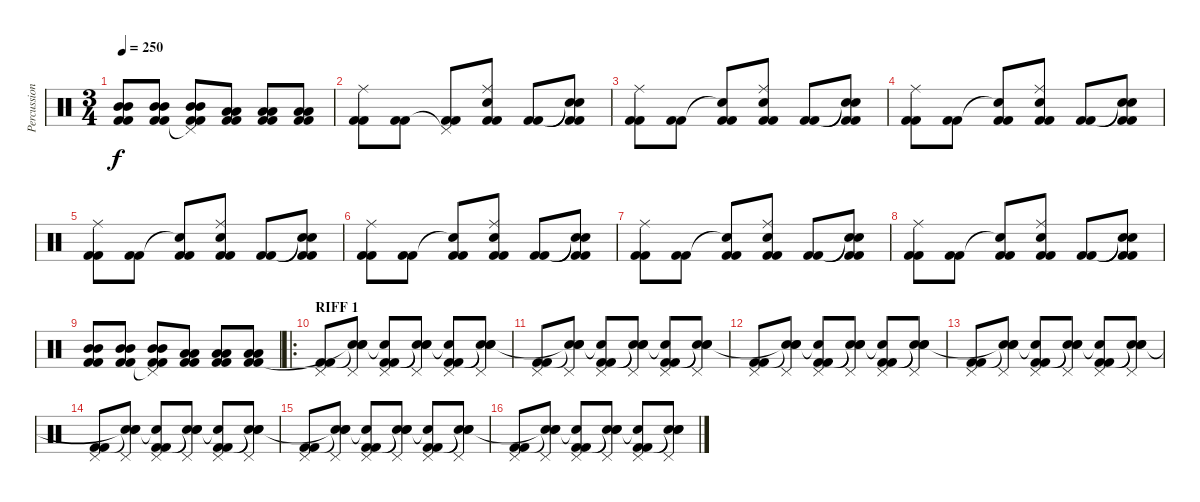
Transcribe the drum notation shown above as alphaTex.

\track ("Percussion" "Percussion") {instrument percussion}
\staff {score}
\articulation defaults
\ts (3 4)
\tempo 250
\clef neutral
\ks c
("Mid Tom (hit)" "Mid Tom (hit)" "Kick (hit) 2" "Kick (hit) 2").8{dy f} ("Mid Tom (hit)" "Mid Tom (hit)" "Kick (hit) 2" "Kick (hit) 2").8 ("Mid Tom (hit)" "Mid Tom (hit)" "Pedal Hi-Hat (hit)"{t} "Kick (hit) 2" "Kick (hit) 2").8 ("Low Floor Tom (hit)" "Low Floor Tom (hit)" "Kick (hit) 2" "Kick (hit) 2").8 ("Low Floor Tom (hit)" "Low Floor Tom (hit)" "Kick (hit) 2" "Kick (hit) 2").8 ("Low Floor Tom (hit)" "Low Floor Tom (hit)" "Kick (hit) 2" "Kick (hit) 2").8 |
("Ride (middle)" "Kick (hit) 2" "Kick (hit) 2").8 ("Kick (hit) 2" "Kick (hit) 2").8 ("Pedal Hi-Hat (hit)"{t} "Kick (hit) 2" "Kick (hit) 2").8 ("Snare (hit) 2" "Ride (middle)" "Kick (hit) 2" "Kick (hit) 2").8 ("Kick (hit) 2" "Kick (hit) 2").8 ("Snare (hit)"{t} "Snare (hit)"{t} "Kick (hit) 2" "Kick (hit) 2").8 |
("Ride (middle)" "Kick (hit) 2" "Kick (hit) 2").8 ("Kick (hit) 2" "Kick (hit) 2").8 ("Snare (hit)"{t} "Kick (hit) 2" "Kick (hit) 2").8 ("Snare (hit) 2" "Ride (middle)" "Kick (hit) 2" "Kick (hit) 2").8 ("Kick (hit) 2" "Kick (hit) 2").8 ("Snare (hit)"{t} "Snare (hit)"{t} "Kick (hit) 2" "Kick (hit) 2").8 |
("Ride (middle)" "Kick (hit) 2" "Kick (hit) 2").8 ("Kick (hit) 2" "Kick (hit) 2").8 ("Snare (hit)"{t} "Kick (hit) 2" "Kick (hit) 2").8 ("Snare (hit) 2" "Ride (middle)" "Kick (hit) 2" "Kick (hit) 2").8 ("Kick (hit) 2" "Kick (hit) 2").8 ("Snare (hit)"{t} "Snare (hit)"{t} "Kick (hit) 2" "Kick (hit) 2").8 |
("Ride (middle)" "Kick (hit) 2" "Kick (hit) 2").8 ("Kick (hit) 2" "Kick (hit) 2").8 ("Snare (hit)"{t} "Kick (hit) 2" "Kick (hit) 2").8 ("Snare (hit) 2" "Ride (middle)" "Kick (hit) 2" "Kick (hit) 2").8 ("Kick (hit) 2" "Kick (hit) 2").8 ("Snare (hit)"{t} "Snare (hit)"{t} "Kick (hit) 2" "Kick (hit) 2").8 |
("Ride (middle)" "Kick (hit) 2" "Kick (hit) 2").8 ("Kick (hit) 2" "Kick (hit) 2").8 ("Snare (hit)"{t} "Kick (hit) 2" "Kick (hit) 2").8 ("Snare (hit) 2" "Ride (middle)" "Kick (hit) 2" "Kick (hit) 2").8 ("Kick (hit) 2" "Kick (hit) 2").8 ("Snare (hit)"{t} "Snare (hit)"{t} "Kick (hit) 2" "Kick (hit) 2").8 |
("Ride (middle)" "Kick (hit) 2" "Kick (hit) 2").8 ("Kick (hit) 2" "Kick (hit) 2").8 ("Snare (hit)"{t} "Kick (hit) 2" "Kick (hit) 2").8 ("Snare (hit) 2" "Ride (middle)" "Kick (hit) 2" "Kick (hit) 2").8 ("Kick (hit) 2" "Kick (hit) 2").8 ("Snare (hit)"{t} "Snare (hit)"{t} "Kick (hit) 2" "Kick (hit) 2").8 |
("Ride (middle)" "Kick (hit) 2" "Kick (hit) 2").8 ("Kick (hit) 2" "Kick (hit) 2").8 ("Snare (hit)"{t} "Kick (hit) 2" "Kick (hit) 2").8 ("Snare (hit) 2" "Ride (middle)" "Kick (hit) 2" "Kick (hit) 2").8 ("Kick (hit) 2" "Kick (hit) 2").8 ("Snare (hit)"{t} "Snare (hit)"{t} "Kick (hit) 2" "Kick (hit) 2").8 |
("Mid Tom (hit)" "Mid Tom (hit)" "Kick (hit) 2" "Kick (hit) 2").8 ("Mid Tom (hit)" "Mid Tom (hit)" "Kick (hit) 2" "Kick (hit) 2").8 ("Mid Tom (hit)" "Mid Tom (hit)" "Pedal Hi-Hat (hit)"{t} "Kick (hit) 2" "Kick (hit) 2").8 ("Low Floor Tom (hit)" "Low Floor Tom (hit)" "Kick (hit) 2" "Kick (hit) 2").8 ("Low Floor Tom (hit)" "Low Floor Tom (hit)" "Kick (hit) 2" "Kick (hit) 2").8 ("Low Floor Tom (hit)" "Low Floor Tom (hit)" "Kick (hit) 2" "Kick (hit) 2").8 |
\ro
\section ("" "RIFF 1")
("Pedal Hi-Hat (hit)" "Kick (hit) 2" "Kick (hit) 2").8 ("Snare (hit) 2" "Pedal Hi-Hat (hit)" "Snare (hit)"{t} "Snare (hit)"{t}).8 ("Snare (hit)"{t} "Pedal Hi-Hat (hit)" "Kick (hit) 2" "Kick (hit) 2").8 ("Snare (hit) 2" "Pedal Hi-Hat (hit)" "Snare (hit)"{t} "Snare (hit)"{t}).8 ("Snare (hit)"{t} "Pedal Hi-Hat (hit)" "Kick (hit) 2" "Kick (hit) 2").8 ("Snare (hit) 2" "Pedal Hi-Hat (hit)" "Snare (hit)"{t} "Snare (hit)"{t}).8 |
("Pedal Hi-Hat (hit)" "Kick (hit) 2" "Kick (hit) 2").8 ("Snare (hit) 2" "Pedal Hi-Hat (hit)" "Snare (hit)"{t} "Snare (hit)"{t}).8 ("Snare (hit)"{t} "Pedal Hi-Hat (hit)" "Kick (hit) 2" "Kick (hit) 2").8 ("Snare (hit) 2" "Pedal Hi-Hat (hit)" "Snare (hit)"{t} "Snare (hit)"{t}).8 ("Snare (hit)"{t} "Pedal Hi-Hat (hit)" "Kick (hit) 2" "Kick (hit) 2").8 ("Snare (hit) 2" "Pedal Hi-Hat (hit)" "Snare (hit)"{t} "Snare (hit)"{t}).8 |
("Pedal Hi-Hat (hit)" "Kick (hit) 2" "Kick (hit) 2").8 ("Snare (hit) 2" "Pedal Hi-Hat (hit)" "Snare (hit)"{t} "Snare (hit)"{t}).8 ("Snare (hit)"{t} "Pedal Hi-Hat (hit)" "Kick (hit) 2" "Kick (hit) 2").8 ("Snare (hit) 2" "Pedal Hi-Hat (hit)" "Snare (hit)"{t} "Snare (hit)"{t}).8 ("Snare (hit)"{t} "Pedal Hi-Hat (hit)" "Kick (hit) 2" "Kick (hit) 2").8 ("Snare (hit) 2" "Pedal Hi-Hat (hit)" "Snare (hit)"{t} "Snare (hit)"{t}).8 |
("Pedal Hi-Hat (hit)" "Kick (hit) 2" "Kick (hit) 2").8 ("Snare (hit) 2" "Pedal Hi-Hat (hit)" "Snare (hit)"{t} "Snare (hit)"{t}).8 ("Snare (hit)"{t} "Pedal Hi-Hat (hit)" "Kick (hit) 2" "Kick (hit) 2").8 ("Snare (hit) 2" "Pedal Hi-Hat (hit)" "Snare (hit)"{t} "Snare (hit)"{t}).8 ("Snare (hit)"{t} "Pedal Hi-Hat (hit)" "Kick (hit) 2" "Kick (hit) 2").8 ("Snare (hit) 2" "Pedal Hi-Hat (hit)" "Snare (hit)"{t} "Snare (hit)"{t}).8 |
("Pedal Hi-Hat (hit)" "Kick (hit) 2" "Kick (hit) 2").8 ("Snare (hit) 2" "Pedal Hi-Hat (hit)" "Snare (hit)"{t} "Snare (hit)"{t}).8 ("Snare (hit)"{t} "Pedal Hi-Hat (hit)" "Kick (hit) 2" "Kick (hit) 2").8 ("Snare (hit) 2" "Pedal Hi-Hat (hit)" "Snare (hit)"{t} "Snare (hit)"{t}).8 ("Snare (hit)"{t} "Pedal Hi-Hat (hit)" "Kick (hit) 2" "Kick (hit) 2").8 ("Snare (hit) 2" "Pedal Hi-Hat (hit)" "Snare (hit)"{t} "Snare (hit)"{t}).8 |
("Pedal Hi-Hat (hit)" "Kick (hit) 2" "Kick (hit) 2").8 ("Snare (hit) 2" "Pedal Hi-Hat (hit)" "Snare (hit)"{t} "Snare (hit)"{t}).8 ("Snare (hit)"{t} "Pedal Hi-Hat (hit)" "Kick (hit) 2" "Kick (hit) 2").8 ("Snare (hit) 2" "Pedal Hi-Hat (hit)" "Snare (hit)"{t} "Snare (hit)"{t}).8 ("Snare (hit)"{t} "Pedal Hi-Hat (hit)" "Kick (hit) 2" "Kick (hit) 2").8 ("Snare (hit) 2" "Pedal Hi-Hat (hit)" "Snare (hit)"{t} "Snare (hit)"{t}).8 |
("Pedal Hi-Hat (hit)" "Kick (hit) 2" "Kick (hit) 2").8 ("Snare (hit) 2" "Pedal Hi-Hat (hit)" "Snare (hit)"{t} "Snare (hit)"{t}).8 ("Snare (hit)"{t} "Pedal Hi-Hat (hit)" "Kick (hit) 2" "Kick (hit) 2").8 ("Snare (hit) 2" "Pedal Hi-Hat (hit)" "Snare (hit)"{t} "Snare (hit)"{t}).8 ("Snare (hit)"{t} "Pedal Hi-Hat (hit)" "Kick (hit) 2" "Kick (hit) 2").8 ("Snare (hit) 2" "Pedal Hi-Hat (hit)" "Snare (hit)"{t} "Snare (hit)"{t}).8
